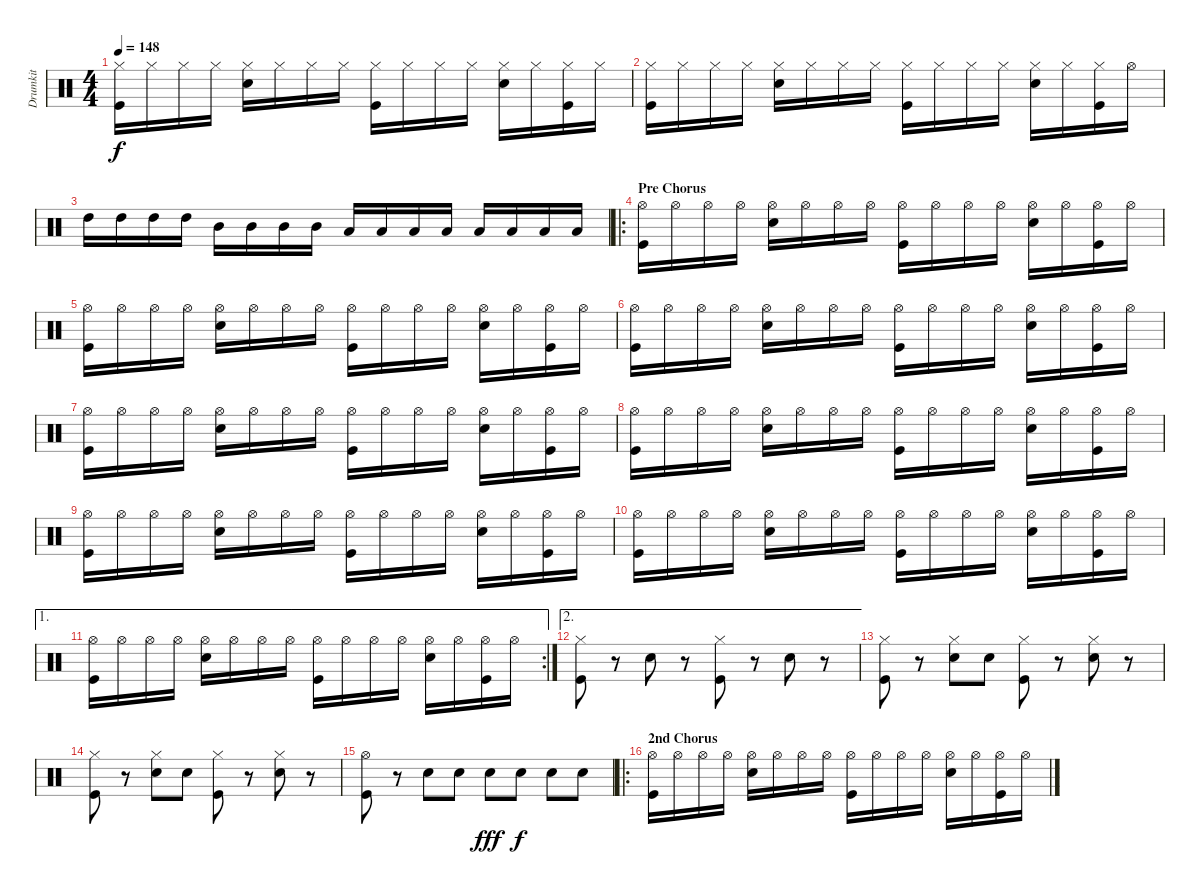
\track ("Drumkit" "Drumkit") {instrument percussion}
\staff {score}
\articulation defaults
\ts (4 4)
\tempo 148
\clef neutral
\ks c
("Hi-Hat (closed)" "Kick (hit)").16{dy f} "Hi-Hat (closed)".16 "Hi-Hat (closed)".16 "Hi-Hat (closed)".16 ("Hi-Hat (closed)" "Snare (hit) 2").16 "Hi-Hat (closed)".16 "Hi-Hat (closed)".16 "Hi-Hat (closed)".16 ("Hi-Hat (closed)" "Kick (hit)").16 "Hi-Hat (closed)".16 "Hi-Hat (closed)".16 "Hi-Hat (closed)".16 ("Hi-Hat (closed)" "Snare (hit) 2").16 "Hi-Hat (closed)".16 ("Hi-Hat (closed)" "Kick (hit)").16 "Hi-Hat (closed)".16 |
("Hi-Hat (closed)" "Kick (hit)").16 "Hi-Hat (closed)".16 "Hi-Hat (closed)".16 "Hi-Hat (closed)".16 ("Hi-Hat (closed)" "Snare (hit) 2").16 "Hi-Hat (closed)".16 "Hi-Hat (closed)".16 "Hi-Hat (closed)".16 ("Hi-Hat (closed)" "Kick (hit)").16 "Hi-Hat (closed)".16 "Hi-Hat (closed)".16 "Hi-Hat (closed)".16 ("Hi-Hat (closed)" "Snare (hit) 2").16 "Hi-Hat (closed)".16 ("Hi-Hat (closed)" "Kick (hit)").16 "Hi-Hat (open)".16 |
"High Tom (hit)".16 "High Tom (hit)".16 "High Tom (hit)".16 "High Tom (hit)".16 "Mid Tom (hit)".16 "Mid Tom (hit)".16 "Mid Tom (hit)".16 "Mid Tom (hit)".16 "Low Tom (hit)".16 "Low Tom (hit)".16 "Low Tom (hit)".16 "Low Tom (hit)".16 "Low Floor Tom (hit)".16 "Low Floor Tom (hit)".16 "Low Floor Tom (hit)".16 "Low Floor Tom (hit)".16 |
\ro
\section ("" "Pre Chorus")
("Hi-Hat (open)" "Kick (hit)").16 "Hi-Hat (open)".16 "Hi-Hat (open)".16 "Hi-Hat (open)".16 ("Hi-Hat (open)" "Snare (hit) 2").16 "Hi-Hat (open)".16 "Hi-Hat (open)".16 "Hi-Hat (open)".16 ("Hi-Hat (open)" "Kick (hit)").16 "Hi-Hat (open)".16 "Hi-Hat (open)".16 "Hi-Hat (open)".16 ("Hi-Hat (open)" "Snare (hit) 2").16 "Hi-Hat (open)".16 ("Hi-Hat (open)" "Kick (hit)").16 "Hi-Hat (open)".16 |
("Hi-Hat (open)" "Kick (hit)").16 "Hi-Hat (open)".16 "Hi-Hat (open)".16 "Hi-Hat (open)".16 ("Hi-Hat (open)" "Snare (hit) 2").16 "Hi-Hat (open)".16 "Hi-Hat (open)".16 "Hi-Hat (open)".16 ("Hi-Hat (open)" "Kick (hit)").16 "Hi-Hat (open)".16 "Hi-Hat (open)".16 "Hi-Hat (open)".16 ("Hi-Hat (open)" "Snare (hit) 2").16 "Hi-Hat (open)".16 ("Hi-Hat (open)" "Kick (hit)").16 "Hi-Hat (open)".16 |
("Hi-Hat (open)" "Kick (hit)").16 "Hi-Hat (open)".16 "Hi-Hat (open)".16 "Hi-Hat (open)".16 ("Hi-Hat (open)" "Snare (hit) 2").16 "Hi-Hat (open)".16 "Hi-Hat (open)".16 "Hi-Hat (open)".16 ("Hi-Hat (open)" "Kick (hit)").16 "Hi-Hat (open)".16 "Hi-Hat (open)".16 "Hi-Hat (open)".16 ("Hi-Hat (open)" "Snare (hit) 2").16 "Hi-Hat (open)".16 ("Hi-Hat (open)" "Kick (hit)").16 "Hi-Hat (open)".16 |
("Hi-Hat (open)" "Kick (hit)").16 "Hi-Hat (open)".16 "Hi-Hat (open)".16 "Hi-Hat (open)".16 ("Hi-Hat (open)" "Snare (hit) 2").16 "Hi-Hat (open)".16 "Hi-Hat (open)".16 "Hi-Hat (open)".16 ("Hi-Hat (open)" "Kick (hit)").16 "Hi-Hat (open)".16 "Hi-Hat (open)".16 "Hi-Hat (open)".16 ("Hi-Hat (open)" "Snare (hit) 2").16 "Hi-Hat (open)".16 ("Hi-Hat (open)" "Kick (hit)").16 "Hi-Hat (open)".16 |
("Hi-Hat (open)" "Kick (hit)").16 "Hi-Hat (open)".16 "Hi-Hat (open)".16 "Hi-Hat (open)".16 ("Hi-Hat (open)" "Snare (hit) 2").16 "Hi-Hat (open)".16 "Hi-Hat (open)".16 "Hi-Hat (open)".16 ("Hi-Hat (open)" "Kick (hit)").16 "Hi-Hat (open)".16 "Hi-Hat (open)".16 "Hi-Hat (open)".16 ("Hi-Hat (open)" "Snare (hit) 2").16 "Hi-Hat (open)".16 ("Hi-Hat (open)" "Kick (hit)").16 "Hi-Hat (open)".16 |
("Hi-Hat (open)" "Kick (hit)").16 "Hi-Hat (open)".16 "Hi-Hat (open)".16 "Hi-Hat (open)".16 ("Hi-Hat (open)" "Snare (hit) 2").16 "Hi-Hat (open)".16 "Hi-Hat (open)".16 "Hi-Hat (open)".16 ("Hi-Hat (open)" "Kick (hit)").16 "Hi-Hat (open)".16 "Hi-Hat (open)".16 "Hi-Hat (open)".16 ("Hi-Hat (open)" "Snare (hit) 2").16 "Hi-Hat (open)".16 ("Hi-Hat (open)" "Kick (hit)").16 "Hi-Hat (open)".16 |
("Hi-Hat (open)" "Kick (hit)").16 "Hi-Hat (open)".16 "Hi-Hat (open)".16 "Hi-Hat (open)".16 ("Hi-Hat (open)" "Snare (hit) 2").16 "Hi-Hat (open)".16 "Hi-Hat (open)".16 "Hi-Hat (open)".16 ("Hi-Hat (open)" "Kick (hit)").16 "Hi-Hat (open)".16 "Hi-Hat (open)".16 "Hi-Hat (open)".16 ("Hi-Hat (open)" "Snare (hit) 2").16 "Hi-Hat (open)".16 ("Hi-Hat (open)" "Kick (hit)").16 "Hi-Hat (open)".16 |
\ae 1
\rc 2
("Hi-Hat (open)" "Kick (hit)").16 "Hi-Hat (open)".16 "Hi-Hat (open)".16 "Hi-Hat (open)".16 ("Hi-Hat (open)" "Snare (hit) 2").16 "Hi-Hat (open)".16 "Hi-Hat (open)".16 "Hi-Hat (open)".16 ("Hi-Hat (open)" "Kick (hit)").16 "Hi-Hat (open)".16 "Hi-Hat (open)".16 "Hi-Hat (open)".16 ("Hi-Hat (open)" "Snare (hit) 2").16 "Hi-Hat (open)".16 ("Hi-Hat (open)" "Kick (hit)").16 "Hi-Hat (open)".16 |
\ae 2
("Hi-Hat (closed)" "Kick (hit)").8 r.8 "Snare (hit) 2".8 r.8 ("Hi-Hat (closed)" "Kick (hit)").8 r.8 "Snare (hit) 2".8 r.8 |
("Hi-Hat (closed)" "Kick (hit)").8 r.8 ("Hi-Hat (closed)" "Snare (hit) 2").8 "Snare (hit) 2".8 ("Hi-Hat (closed)" "Kick (hit)").8 r.8 ("Hi-Hat (closed)" "Snare (hit) 2").8 r.8 |
("Hi-Hat (closed)" "Kick (hit)").8 r.8 ("Hi-Hat (closed)" "Snare (hit) 2").8 "Snare (hit) 2".8 ("Hi-Hat (closed)" "Kick (hit)").8 r.8 ("Hi-Hat (closed)" "Snare (hit) 2").8 r.8 |
("Hi-Hat (open)" "Kick (hit)").8 r.8 "Snare (hit) 2".8 "Snare (hit) 2".8 "Snare (hit) 2".8{dy fff} "Snare (hit) 2".8{dy f} "Snare (hit) 2".8 "Snare (hit) 2".8 |
\ro
\section ("" "2nd Chorus")
("Hi-Hat (open)" "Kick (hit)").16 "Hi-Hat (open)".16 "Hi-Hat (open)".16 "Hi-Hat (open)".16 ("Hi-Hat (open)" "Snare (hit) 2").16 "Hi-Hat (open)".16 "Hi-Hat (open)".16 "Hi-Hat (open)".16 ("Hi-Hat (open)" "Kick (hit)").16 "Hi-Hat (open)".16 "Hi-Hat (open)".16 "Hi-Hat (open)".16 ("Hi-Hat (open)" "Snare (hit) 2").16 "Hi-Hat (open)".16 ("Hi-Hat (open)" "Kick (hit)").16 "Hi-Hat (open)".16
